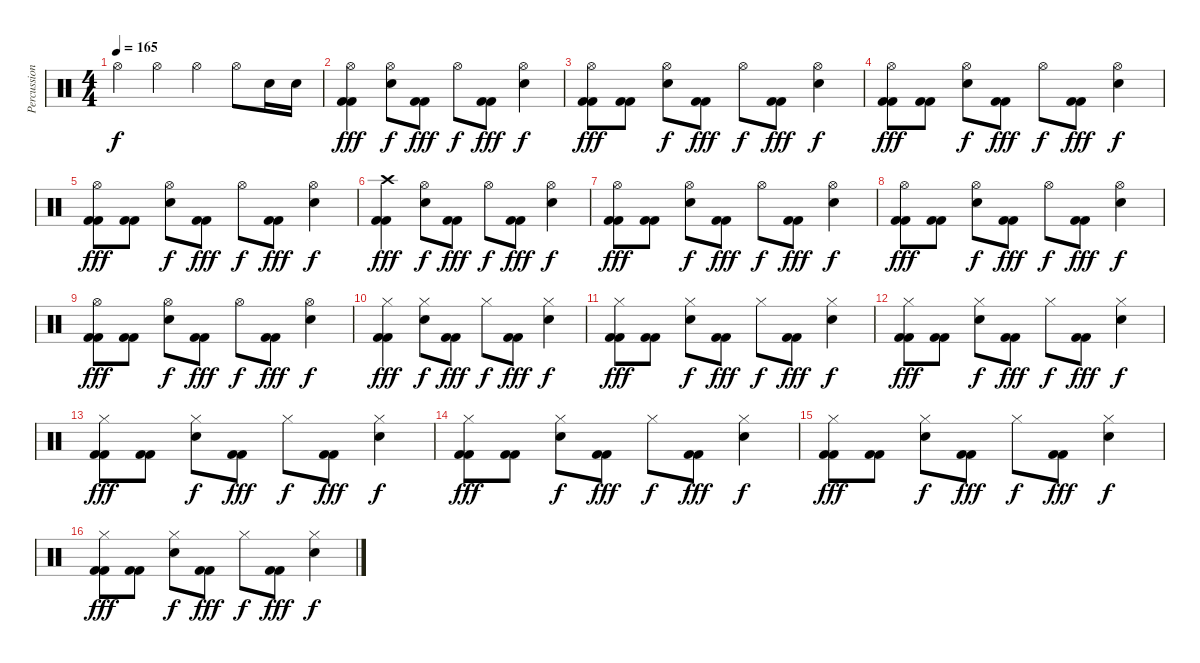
\track ("Percussions" "Percussion") {instrument percussion}
\staff {score}
\articulation defaults
\ts (4 4)
\tempo 165
\clef neutral
\ks c "Hi-Hat (open)".4{dy f} "Hi-Hat (open)".4 "Hi-Hat (open)".4 "Hi-Hat (open)".8 "Electric Snare (hit)".16 "Electric Snare (hit)".16
|
("Hi-Hat (open)" "Kick (hit) 2" "Kick (hit) 2").4{dy fff} ("Hi-Hat (open)" "Electric Snare (hit)").8{dy f} ("Kick (hit) 2" "Kick (hit) 2").8{dy fff} "Hi-Hat (open)".8{dy f} ("Kick (hit) 2" "Kick (hit) 2").8{dy fff} ("Hi-Hat (open)" "Electric Snare (hit)").4{dy f} |
("Hi-Hat (open)" "Kick (hit) 2" "Kick (hit) 2").8{dy fff} ("Kick (hit) 2" "Kick (hit) 2").8 ("Hi-Hat (open)" "Electric Snare (hit)").8{dy f} ("Kick (hit) 2" "Kick (hit) 2").8{dy fff} "Hi-Hat (open)".8{dy f} ("Kick (hit) 2" "Kick (hit) 2").8{dy fff} ("Hi-Hat (open)" "Electric Snare (hit)").4{dy f} |
("Hi-Hat (open)" "Kick (hit) 2" "Kick (hit) 2").8{dy fff} ("Kick (hit) 2" "Kick (hit) 2").8 ("Hi-Hat (open)" "Electric Snare (hit)").8{dy f} ("Kick (hit) 2" "Kick (hit) 2").8{dy fff} "Hi-Hat (open)".8{dy f} ("Kick (hit) 2" "Kick (hit) 2").8{dy fff} ("Hi-Hat (open)" "Electric Snare (hit)").4{dy f} |
("Hi-Hat (open)" "Kick (hit) 2" "Kick (hit) 2").8{dy fff} ("Kick (hit) 2" "Kick (hit) 2").8 ("Hi-Hat (open)" "Electric Snare (hit)").8{dy f} ("Kick (hit) 2" "Kick (hit) 2").8{dy fff} "Hi-Hat (open)".8{dy f} ("Kick (hit) 2" "Kick (hit) 2").8{dy fff} ("Hi-Hat (open)" "Electric Snare (hit)").4{dy f} |
("Crash high (hit)" "Kick (hit) 2" "Kick (hit) 2").4{dy fff} ("Hi-Hat (open)" "Electric Snare (hit)").8{dy f} ("Kick (hit) 2" "Kick (hit) 2").8{dy fff} "Hi-Hat (open)".8{dy f} ("Kick (hit) 2" "Kick (hit) 2").8{dy fff} ("Hi-Hat (open)" "Electric Snare (hit)").4{dy f} |
("Hi-Hat (open)" "Kick (hit) 2" "Kick (hit) 2").8{dy fff} ("Kick (hit) 2" "Kick (hit) 2").8 ("Hi-Hat (open)" "Electric Snare (hit)").8{dy f} ("Kick (hit) 2" "Kick (hit) 2").8{dy fff} "Hi-Hat (open)".8{dy f} ("Kick (hit) 2" "Kick (hit) 2").8{dy fff} ("Hi-Hat (open)" "Electric Snare (hit)").4{dy f} |
("Hi-Hat (open)" "Kick (hit) 2" "Kick (hit) 2").8{dy fff} ("Kick (hit) 2" "Kick (hit) 2").8 ("Hi-Hat (open)" "Electric Snare (hit)").8{dy f} ("Kick (hit) 2" "Kick (hit) 2").8{dy fff} "Hi-Hat (open)".8{dy f} ("Kick (hit) 2" "Kick (hit) 2").8{dy fff} ("Hi-Hat (open)" "Electric Snare (hit)").4{dy f} |
("Hi-Hat (open)" "Kick (hit) 2" "Kick (hit) 2").8{dy fff} ("Kick (hit) 2" "Kick (hit) 2").8 ("Hi-Hat (open)" "Electric Snare (hit)").8{dy f} ("Kick (hit) 2" "Kick (hit) 2").8{dy fff} "Hi-Hat (open)".8{dy f} ("Kick (hit) 2" "Kick (hit) 2").8{dy fff} ("Hi-Hat (open)" "Electric Snare (hit)").4{dy f} |
("Hi-Hat (closed)" "Kick (hit) 2" "Kick (hit) 2").4{dy fff} ("Hi-Hat (closed)" "Electric Snare (hit)").8{dy f} ("Kick (hit) 2" "Kick (hit) 2").8{dy fff} "Hi-Hat (closed)".8{dy f} ("Kick (hit) 2" "Kick (hit) 2").8{dy fff} ("Hi-Hat (closed)" "Electric Snare (hit)").4{dy f} |
("Hi-Hat (closed)" "Kick (hit) 2" "Kick (hit) 2").8{dy fff} ("Kick (hit) 2" "Kick (hit) 2").8 ("Hi-Hat (closed)" "Electric Snare (hit)").8{dy f} ("Kick (hit) 2" "Kick (hit) 2").8{dy fff} "Hi-Hat (closed)".8{dy f} ("Kick (hit) 2" "Kick (hit) 2").8{dy fff} ("Hi-Hat (closed)" "Electric Snare (hit)").4{dy f} |
("Hi-Hat (closed)" "Kick (hit) 2" "Kick (hit) 2").8{dy fff} ("Kick (hit) 2" "Kick (hit) 2").8 ("Hi-Hat (closed)" "Electric Snare (hit)").8{dy f} ("Kick (hit) 2" "Kick (hit) 2").8{dy fff} "Hi-Hat (closed)".8{dy f} ("Kick (hit) 2" "Kick (hit) 2").8{dy fff} ("Hi-Hat (closed)" "Electric Snare (hit)").4{dy f} |
("Hi-Hat (closed)" "Kick (hit) 2" "Kick (hit) 2").8{dy fff} ("Kick (hit) 2" "Kick (hit) 2").8 ("Hi-Hat (closed)" "Electric Snare (hit)").8{dy f} ("Kick (hit) 2" "Kick (hit) 2").8{dy fff} "Hi-Hat (closed)".8{dy f} ("Kick (hit) 2" "Kick (hit) 2").8{dy fff} ("Hi-Hat (closed)" "Electric Snare (hit)").4{dy f} |
("Hi-Hat (closed)" "Kick (hit) 2" "Kick (hit) 2").8{dy fff} ("Kick (hit) 2" "Kick (hit) 2").8 ("Hi-Hat (closed)" "Electric Snare (hit)").8{dy f} ("Kick (hit) 2" "Kick (hit) 2").8{dy fff} "Hi-Hat (closed)".8{dy f} ("Kick (hit) 2" "Kick (hit) 2").8{dy fff} ("Hi-Hat (closed)" "Electric Snare (hit)").4{dy f} |
("Hi-Hat (closed)" "Kick (hit) 2" "Kick (hit) 2").8{dy fff} ("Kick (hit) 2" "Kick (hit) 2").8 ("Hi-Hat (closed)" "Electric Snare (hit)").8{dy f} ("Kick (hit) 2" "Kick (hit) 2").8{dy fff} "Hi-Hat (closed)".8{dy f} ("Kick (hit) 2" "Kick (hit) 2").8{dy fff} ("Hi-Hat (closed)" "Electric Snare (hit)").4{dy f} |
("Hi-Hat (closed)" "Kick (hit) 2" "Kick (hit) 2").8{dy fff} ("Kick (hit) 2" "Kick (hit) 2").8 ("Hi-Hat (closed)" "Electric Snare (hit)").8{dy f} ("Kick (hit) 2" "Kick (hit) 2").8{dy fff} "Hi-Hat (closed)".8{dy f} ("Kick (hit) 2" "Kick (hit) 2").8{dy fff} ("Hi-Hat (closed)" "Electric Snare (hit)").4{dy f}
